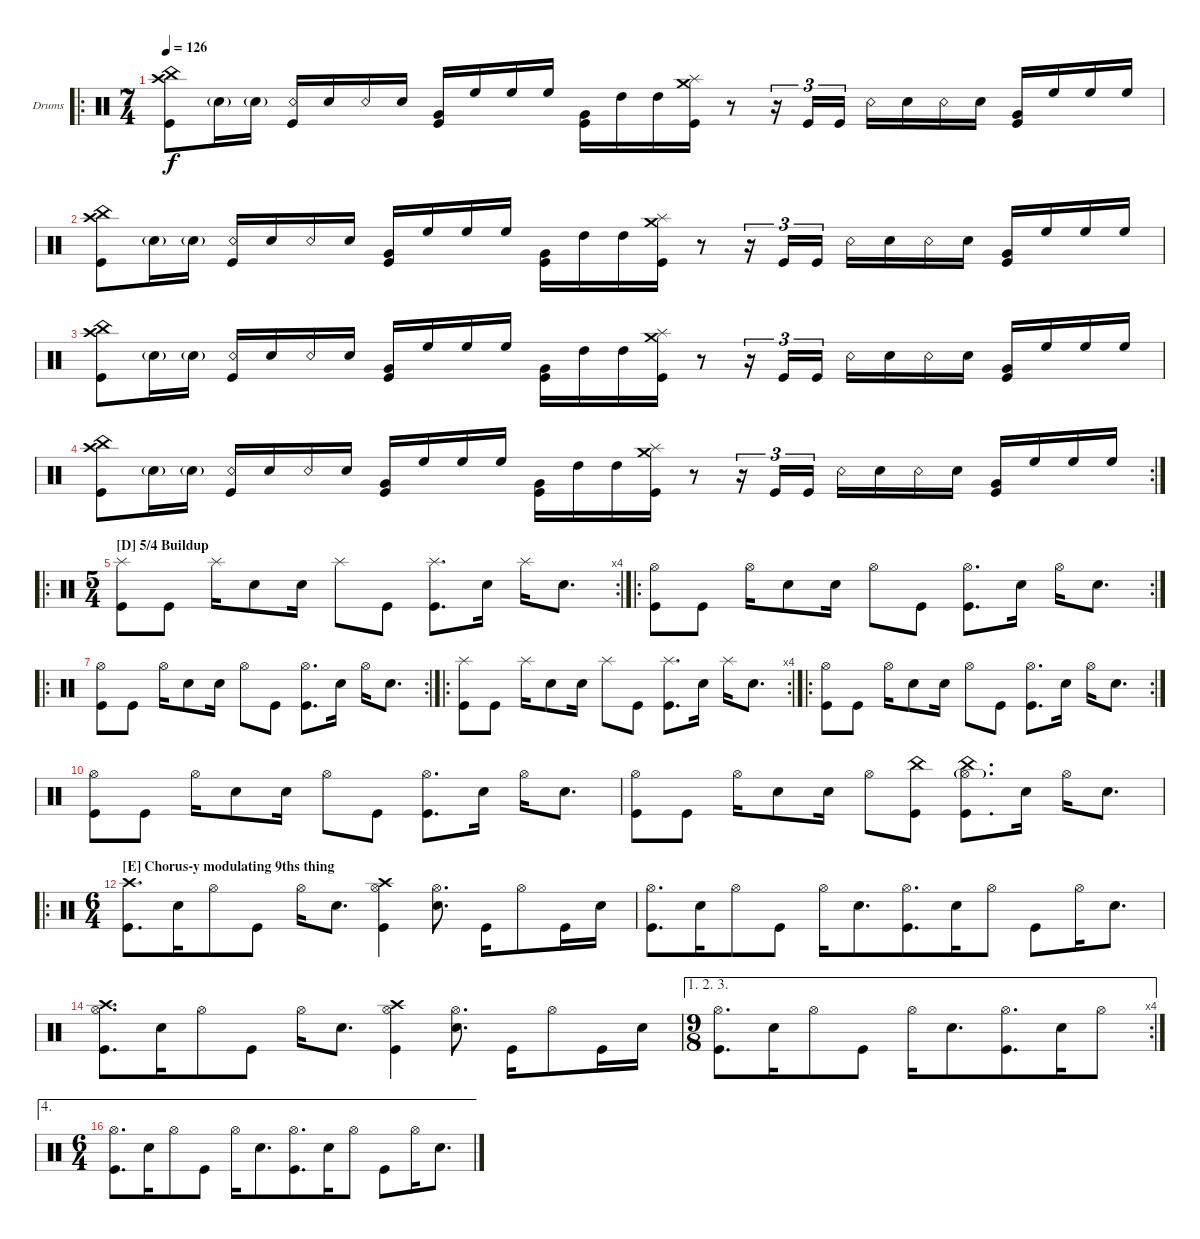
\bracketExtendMode groupsimilarinstruments
\firstSystemTrackNameOrientation horizontal
\otherSystemsTrackNameOrientation horizontal
\defaultBarNumberDisplay FirstOfSystem
\track ("Drumkit" "Drums") {instrument percussion}
\staff {score}
\articulation defaults
\ro
\ts (7 4)
\beaming (8 2 2 2 2 2 2 2)
\tempo 126
\clef neutral
\ks c
("Kick (hit)" "Crash high (hit)" "China (hit)").8{dy f} "Snare (hit) 2"{g}.16 "Snare (hit) 2"{g}.16 ("Snare (rim shot)" "Kick (hit)").16 "Snare (hit) 2".16 "Snare (rim shot)".16 "Snare (hit) 2".16 ("Very Low Tom (hit)" "Kick (hit)").16 "High Floor Tom (hit)".16 "High Floor Tom (hit)".16 "High Floor Tom (hit)".16 ("Very Low Tom (hit)" "Kick (hit)").16 "High Tom (hit)".16 "High Tom (hit)".16 ("Kick (hit)" "Crash medium (hit)" "Splash (hit)").16 r.8 r.16{tu (3 2)} "Kick (hit)".16{tu (3 2)} "Kick (hit)".16{tu (3 2)} "Snare (rim shot)".16 "Snare (hit) 2".16 "Snare (rim shot)".16 "Snare (hit) 2".16 ("Kick (hit)" "Very Low Tom (hit)").16 "High Floor Tom (hit)".16 "High Floor Tom (hit)".16 "High Floor Tom (hit)".16 |
("Kick (hit)" "Crash high (hit)" "China (hit)").8 "Snare (hit) 2"{g}.16 "Snare (hit) 2"{g}.16 ("Snare (rim shot)" "Kick (hit)").16 "Snare (hit) 2".16 "Snare (rim shot)".16 "Snare (hit) 2".16 ("Very Low Tom (hit)" "Kick (hit)").16 "High Floor Tom (hit)".16 "High Floor Tom (hit)".16 "High Floor Tom (hit)".16 ("Very Low Tom (hit)" "Kick (hit)").16 "High Tom (hit)".16 "High Tom (hit)".16 ("Kick (hit)" "Crash medium (hit)" "Splash (hit)").16 r.8 r.16{tu (3 2)} "Kick (hit)".16{tu (3 2)} "Kick (hit)".16{tu (3 2)} "Snare (rim shot)".16 "Snare (hit) 2".16 "Snare (rim shot)".16 "Snare (hit) 2".16 ("Kick (hit)" "Very Low Tom (hit)").16 "High Floor Tom (hit)".16 "High Floor Tom (hit)".16 "High Floor Tom (hit)".16 |
("Kick (hit)" "Crash high (hit)" "China (hit)").8 "Snare (hit) 2"{g}.16 "Snare (hit) 2"{g}.16 ("Snare (rim shot)" "Kick (hit)").16 "Snare (hit) 2".16 "Snare (rim shot)".16 "Snare (hit) 2".16 ("Very Low Tom (hit)" "Kick (hit)").16 "High Floor Tom (hit)".16 "High Floor Tom (hit)".16 "High Floor Tom (hit)".16 ("Very Low Tom (hit)" "Kick (hit)").16 "High Tom (hit)".16 "High Tom (hit)".16 ("Kick (hit)" "Crash medium (hit)" "Splash (hit)").16 r.8 r.16{tu (3 2)} "Kick (hit)".16{tu (3 2)} "Kick (hit)".16{tu (3 2)} "Snare (rim shot)".16 "Snare (hit) 2".16 "Snare (rim shot)".16 "Snare (hit) 2".16 ("Kick (hit)" "Very Low Tom (hit)").16 "High Floor Tom (hit)".16 "High Floor Tom (hit)".16 "High Floor Tom (hit)".16 |
\rc 2
("Kick (hit)" "Crash high (hit)" "China (hit)").8 "Snare (hit) 2"{g}.16 "Snare (hit) 2"{g}.16 ("Snare (rim shot)" "Kick (hit)").16 "Snare (hit) 2".16 "Snare (rim shot)".16 "Snare (hit) 2".16 ("Very Low Tom (hit)" "Kick (hit)").16 "High Floor Tom (hit)".16 "High Floor Tom (hit)".16 "High Floor Tom (hit)".16 ("Very Low Tom (hit)" "Kick (hit)").16 "High Tom (hit)".16 "High Tom (hit)".16 ("Kick (hit)" "Crash medium (hit)" "Splash (hit)").16 r.8 r.16{tu (3 2)} "Kick (hit)".16{tu (3 2)} "Kick (hit)".16{tu (3 2)} "Snare (rim shot)".16 "Snare (hit) 2".16 "Snare (rim shot)".16 "Snare (hit) 2".16 ("Kick (hit)" "Very Low Tom (hit)").16 "High Floor Tom (hit)".16 "High Floor Tom (hit)".16 "High Floor Tom (hit)".16 |
\ro
\rc 4
\ts (5 4)
\section ("D" "5/4 Buildup")
("Splash (hit)" "Kick (hit)").8 "Kick (hit)".8 "Splash (hit)".16 "Snare (hit) 2".8 "Snare (hit) 2".16 "Splash (hit)".8 "Kick (hit)".8 ("Kick (hit)" "Splash (hit)").8{d} "Snare (hit) 2".16 "Splash (hit)".16 "Snare (hit) 2".8{d} |
\ro
\rc 2
("Hi-Hat (open)" "Kick (hit)").8 "Kick (hit)".8 "Hi-Hat (open)".16 "Snare (hit) 2".8 "Snare (hit) 2".16 "Hi-Hat (open)".8 "Kick (hit)".8 ("Kick (hit)" "Hi-Hat (open)").8{d} "Snare (hit) 2".16 "Hi-Hat (open)".16 "Snare (hit) 2".8{d} |
\ro
\rc 2
("Hi-Hat (open)" "Kick (hit)").8 "Kick (hit)".8 "Hi-Hat (open)".16 "Snare (hit) 2".8 "Snare (hit) 2".16 "Hi-Hat (open)".8 "Kick (hit)".8 ("Kick (hit)" "Hi-Hat (open)").8{d} "Snare (hit) 2".16 "Hi-Hat (open)".16 "Snare (hit) 2".8{d} |
\ro
\rc 4
("Splash (hit)" "Kick (hit)").8 "Kick (hit)".8 "Splash (hit)".16 "Snare (hit) 2".8 "Snare (hit) 2".16 "Splash (hit)".8 "Kick (hit)".8 ("Kick (hit)" "Splash (hit)").8{d} "Snare (hit) 2".16 "Splash (hit)".16 "Snare (hit) 2".8{d} |
\ro
\rc 2
("Hi-Hat (open)" "Kick (hit)").8 "Kick (hit)".8 "Hi-Hat (open)".16 "Snare (hit) 2".8 "Snare (hit) 2".16 "Hi-Hat (open)".8 "Kick (hit)".8 ("Kick (hit)" "Hi-Hat (open)").8{d} "Snare (hit) 2".16 "Hi-Hat (open)".16 "Snare (hit) 2".8{d} |
("Hi-Hat (open)" "Kick (hit)").8 "Kick (hit)".8 "Hi-Hat (open)".16 "Snare (hit) 2".8 "Snare (hit) 2".16 "Hi-Hat (open)".8 "Kick (hit)".8 ("Kick (hit)" "Hi-Hat (open)").8{d} "Snare (hit) 2".16 "Hi-Hat (open)".16 "Snare (hit) 2".8{d} |
("Hi-Hat (open)" "Kick (hit)").8 "Kick (hit)".8 "Hi-Hat (open)".16 "Snare (hit) 2".8 "Snare (hit) 2".16 "Hi-Hat (open)".8 ("Kick (hit)" "China (hit)").8 ("Kick (hit)" "Hi-Hat (open)"{g} "China (hit)").8{d} "Snare (hit) 2".16 "Hi-Hat (open)".16 "Snare (hit) 2".8{d} |
\ro
\ts (6 4)
\beaming (8 4 5 3)
\section ("E" "Chorus-y modulating 9ths thing")
("Crash high (hit)" "Kick (hit)").8{d} "Snare (hit) 2".16 "Hi-Hat (open)".8 "Kick (hit)".8 "Hi-Hat (open)".16 "Snare (hit) 2".8{d} ("Kick (hit)" "Hi-Hat (open)" "Crash high (hit)").4 ("Snare (hit) 2" "Hi-Hat (open)").8{d} "Kick (hit)".16 "Hi-Hat (open)".8 "Kick (hit)".16 "Snare (hit) 2".16 |
("Hi-Hat (open)" "Kick (hit)").8{d} "Snare (hit) 2".16 "Hi-Hat (open)".8 "Kick (hit)".8 "Hi-Hat (open)".16 "Snare (hit) 2".8{d} ("Kick (hit)" "Hi-Hat (open)").8{d} "Snare (hit) 2".16 "Hi-Hat (open)".8 "Kick (hit)".8 "Hi-Hat (open)".16 "Snare (hit) 2".8{d} |
("Kick (hit)" "Crash high (hit)" "Hi-Hat (open)").8{d} "Snare (hit) 2".16 "Hi-Hat (open)".8 "Kick (hit)".8 "Hi-Hat (open)".16 "Snare (hit) 2".8{d} ("Kick (hit)" "Hi-Hat (open)" "Crash high (hit)").4 ("Snare (hit) 2" "Hi-Hat (open)").8{d} "Kick (hit)".16 "Hi-Hat (open)".8 "Kick (hit)".16 "Snare (hit) 2".16 |
\ae (1 2 3)
\rc 4
\ts (9 8)
("Hi-Hat (open)" "Kick (hit)").8{d} "Snare (hit) 2".16 "Hi-Hat (open)".8 "Kick (hit)".8 "Hi-Hat (open)".16 "Snare (hit) 2".8{d} ("Kick (hit)" "Hi-Hat (open)").8{d} "Snare (hit) 2".16 "Hi-Hat (open)".8 |
\ae 4
\ts (6 4)
("Hi-Hat (open)" "Kick (hit)").8{d} "Snare (hit) 2".16 "Hi-Hat (open)".8 "Kick (hit)".8 "Hi-Hat (open)".16 "Snare (hit) 2".8{d} ("Kick (hit)" "Hi-Hat (open)").8{d} "Snare (hit) 2".16 "Hi-Hat (open)".8 "Kick (hit)".8 "Hi-Hat (open)".16 "Snare (hit) 2".8{d}
